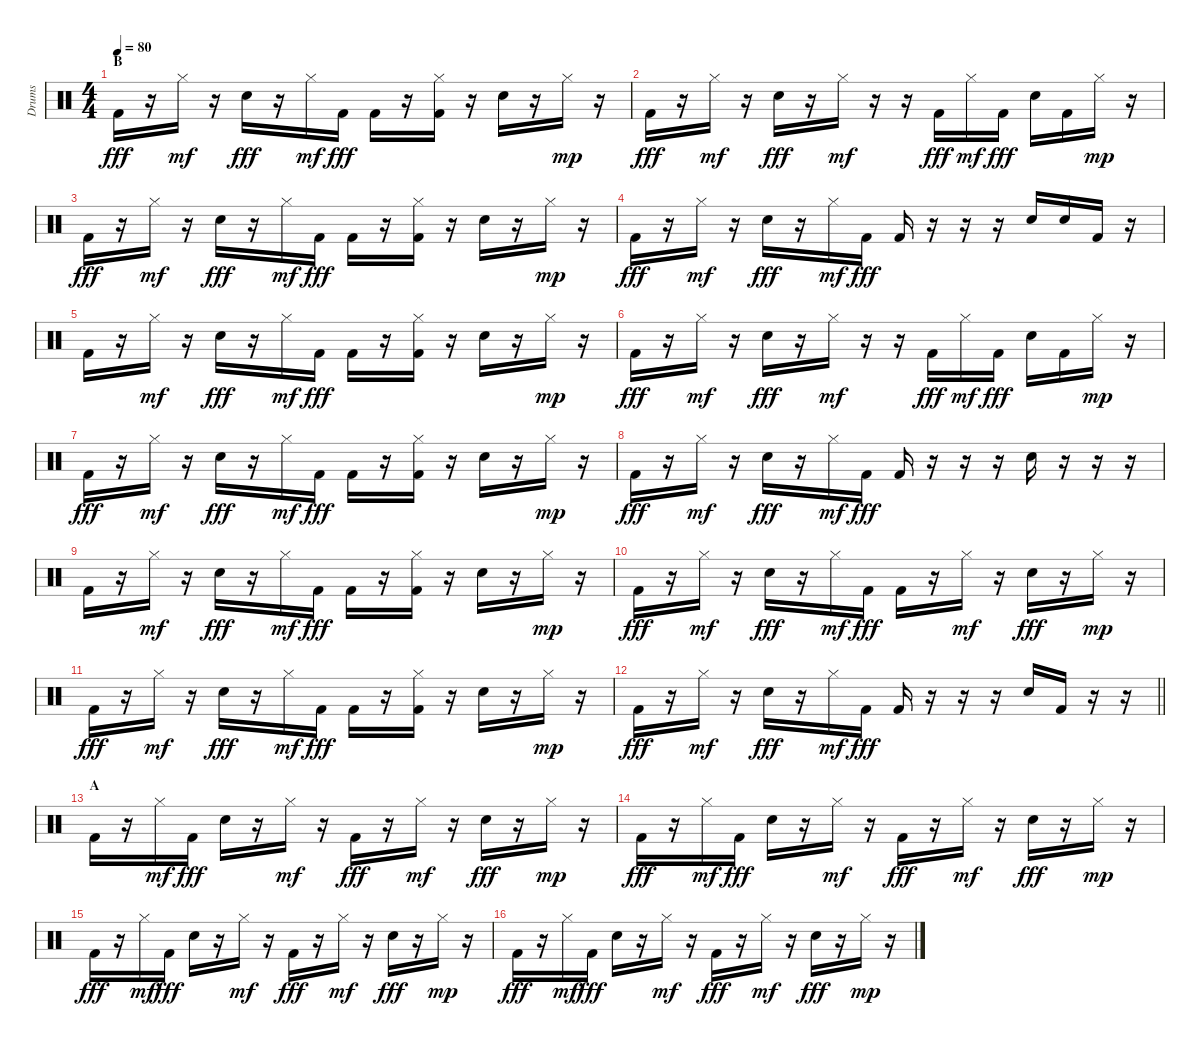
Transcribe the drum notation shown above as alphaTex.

\track ("Drums" "Drums") {instrument percussion}
\staff
\articulation defaults
\ts (4 4)
\section ("" "B")
\tempo 80
\clef neutral
\ks c "Kick (hit) 2".16{dy fff}
r.16 "Hi-Hat (closed)".16{dy mf} r.16 "Electric Snare (hit)".16{dy fff} r.16 "Hi-Hat (closed)".16{dy mf} "Kick (hit) 2".16{dy fff} "Kick (hit) 2".16 r.16 ("Hi-Hat (closed)" "Kick (hit) 2").16 r.16 "Electric Snare (hit)".16 r.16 "Hi-Hat (closed)".16{dy mp} r.16 |
"Kick (hit) 2".16{dy fff} r.16 "Hi-Hat (closed)".16{dy mf} r.16 "Electric Snare (hit)".16{dy fff} r.16 "Hi-Hat (closed)".16{dy mf} r.16 r.16 "Kick (hit) 2".16{dy fff} "Hi-Hat (closed)".16{dy mf} "Kick (hit) 2".16{dy fff} "Electric Snare (hit)".16 "Kick (hit) 2".16 "Hi-Hat (closed)".16{dy mp} r.16 |
"Kick (hit) 2".16{dy fff} r.16 "Hi-Hat (closed)".16{dy mf} r.16 "Electric Snare (hit)".16{dy fff} r.16 "Hi-Hat (closed)".16{dy mf} "Kick (hit) 2".16{dy fff} "Kick (hit) 2".16 r.16 ("Hi-Hat (closed)" "Kick (hit) 2").16 r.16 "Electric Snare (hit)".16 r.16 "Hi-Hat (closed)".16{dy mp} r.16 |
"Kick (hit) 2".16{dy fff} r.16 "Hi-Hat (closed)".16{dy mf} r.16 "Electric Snare (hit)".16{dy fff} r.16 "Hi-Hat (closed)".16{dy mf} "Kick (hit) 2".16{dy fff} "Kick (hit) 2".16 r.16 r.16 r.16 "Electric Snare (hit)".16 "Electric Snare (hit)".16 "Kick (hit) 2".16 r.16 |
"Kick (hit) 2".16 r.16 "Hi-Hat (closed)".16{dy mf} r.16 "Electric Snare (hit)".16{dy fff} r.16 "Hi-Hat (closed)".16{dy mf} "Kick (hit) 2".16{dy fff} "Kick (hit) 2".16 r.16 ("Hi-Hat (closed)" "Kick (hit) 2").16 r.16 "Electric Snare (hit)".16 r.16 "Hi-Hat (closed)".16{dy mp} r.16 |
"Kick (hit) 2".16{dy fff} r.16 "Hi-Hat (closed)".16{dy mf} r.16 "Electric Snare (hit)".16{dy fff} r.16 "Hi-Hat (closed)".16{dy mf} r.16 r.16 "Kick (hit) 2".16{dy fff} "Hi-Hat (closed)".16{dy mf} "Kick (hit) 2".16{dy fff} "Electric Snare (hit)".16 "Kick (hit) 2".16 "Hi-Hat (closed)".16{dy mp} r.16 |
"Kick (hit) 2".16{dy fff} r.16 "Hi-Hat (closed)".16{dy mf} r.16 "Electric Snare (hit)".16{dy fff} r.16 "Hi-Hat (closed)".16{dy mf} "Kick (hit) 2".16{dy fff} "Kick (hit) 2".16 r.16 ("Hi-Hat (closed)" "Kick (hit) 2").16 r.16 "Electric Snare (hit)".16 r.16 "Hi-Hat (closed)".16{dy mp} r.16 |
"Kick (hit) 2".16{dy fff} r.16 "Hi-Hat (closed)".16{dy mf} r.16 "Electric Snare (hit)".16{dy fff} r.16 "Hi-Hat (closed)".16{dy mf} "Kick (hit) 2".16{dy fff} "Kick (hit) 2".16 r.16 r.16 r.16 "Electric Snare (hit)".16 r.16 r.16 r.16 |
"Kick (hit) 2".16 r.16 "Hi-Hat (closed)".16{dy mf} r.16 "Electric Snare (hit)".16{dy fff} r.16 "Hi-Hat (closed)".16{dy mf} "Kick (hit) 2".16{dy fff} "Kick (hit) 2".16 r.16 ("Hi-Hat (closed)" "Kick (hit) 2").16 r.16 "Electric Snare (hit)".16 r.16 "Hi-Hat (closed)".16{dy mp} r.16 |
"Kick (hit) 2".16{dy fff} r.16 "Hi-Hat (closed)".16{dy mf} r.16 "Electric Snare (hit)".16{dy fff} r.16 "Hi-Hat (closed)".16{dy mf} "Kick (hit) 2".16{dy fff} "Kick (hit) 2".16 r.16 "Hi-Hat (closed)".16{dy mf} r.16 "Electric Snare (hit)".16{dy fff} r.16 "Hi-Hat (closed)".16{dy mp} r.16 |
"Kick (hit) 2".16{dy fff} r.16 "Hi-Hat (closed)".16{dy mf} r.16 "Electric Snare (hit)".16{dy fff} r.16 "Hi-Hat (closed)".16{dy mf} "Kick (hit) 2".16{dy fff} "Kick (hit) 2".16 r.16 ("Hi-Hat (closed)" "Kick (hit) 2").16 r.16 "Electric Snare (hit)".16 r.16 "Hi-Hat (closed)".16{dy mp} r.16 |
\barLineRight lightlight "Kick (hit) 2".16{dy fff}
r.16 "Hi-Hat (closed)".16{dy mf} r.16 "Electric Snare (hit)".16{dy fff} r.16 "Hi-Hat (closed)".16{dy mf} "Kick (hit) 2".16{dy fff} "Kick (hit) 2".16 r.16 r.16 r.16 "Electric Snare (hit)".16 "Kick (hit) 2".16 r.16 r.16 |
\section ("" "A")
"Kick (hit) 2".16 r.16 "Hi-Hat (closed)".16{dy mf} "Kick (hit) 2".16{dy fff} "Electric Snare (hit)".16 r.16 "Hi-Hat (closed)".16{dy mf} r.16 "Kick (hit) 2".16{dy fff} r.16 "Hi-Hat (closed)".16{dy mf} r.16 "Electric Snare (hit)".16{dy fff} r.16 "Hi-Hat (closed)".16{dy mp} r.16 |
"Kick (hit) 2".16{dy fff} r.16 "Hi-Hat (closed)".16{dy mf} "Kick (hit) 2".16{dy fff} "Electric Snare (hit)".16 r.16 "Hi-Hat (closed)".16{dy mf} r.16 "Kick (hit) 2".16{dy fff} r.16 "Hi-Hat (closed)".16{dy mf} r.16 "Electric Snare (hit)".16{dy fff} r.16 "Hi-Hat (closed)".16{dy mp} r.16 |
"Kick (hit) 2".16{dy fff} r.16 "Hi-Hat (closed)".16{dy mf} "Kick (hit) 2".16{dy fff} "Electric Snare (hit)".16 r.16 "Hi-Hat (closed)".16{dy mf} r.16 "Kick (hit) 2".16{dy fff} r.16 "Hi-Hat (closed)".16{dy mf} r.16 "Electric Snare (hit)".16{dy fff} r.16 "Hi-Hat (closed)".16{dy mp} r.16 |
"Kick (hit) 2".16{dy fff} r.16 "Hi-Hat (closed)".16{dy mf} "Kick (hit) 2".16{dy fff} "Electric Snare (hit)".16 r.16 "Hi-Hat (closed)".16{dy mf} r.16 "Kick (hit) 2".16{dy fff} r.16 "Hi-Hat (closed)".16{dy mf} r.16 "Electric Snare (hit)".16{dy fff} r.16 "Hi-Hat (closed)".16{dy mp} r.16
